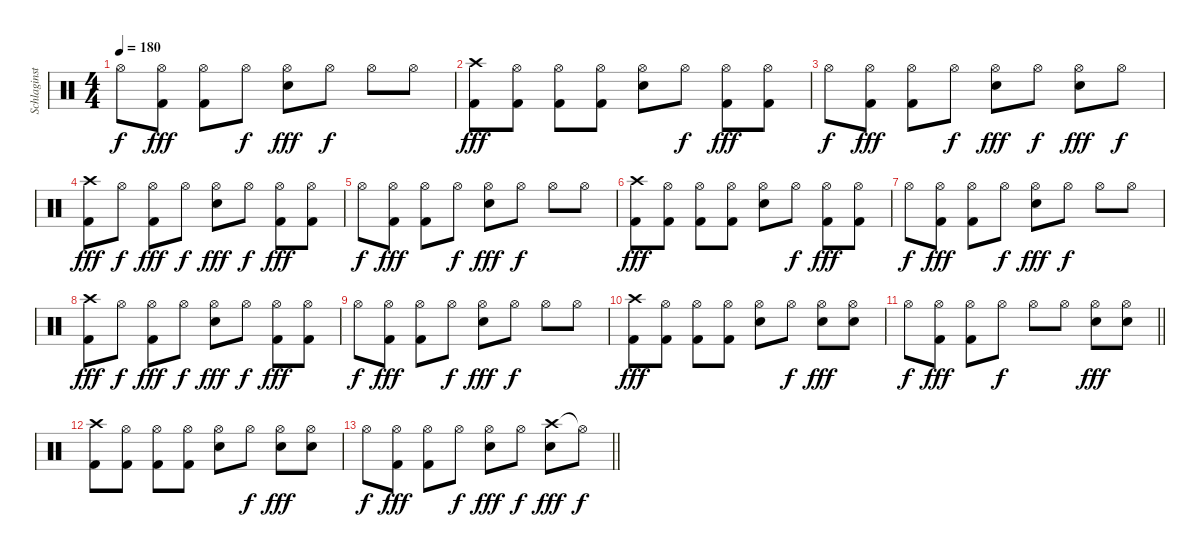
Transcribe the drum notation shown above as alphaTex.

\track ("Schlaginstrumente - Auswahl" "Schlaginst") {instrument percussion}
\staff {score}
\articulation defaults
\ts (4 4)
\tempo 180
\clef neutral
\ks c "Hi-Hat (open)".8{dy f}
("Hi-Hat (open)" "Kick (hit) 2").8{dy fff} ("Hi-Hat (open)" "Kick (hit) 2").8 "Hi-Hat (open)".8{dy f} ("Hi-Hat (open)" "Snare (hit) 2").8{dy fff} "Hi-Hat (open)".8{dy f} "Hi-Hat (open)".8 "Hi-Hat (open)".8 |
("Crash high (hit)" "Kick (hit) 2").8{dy fff} ("Hi-Hat (open)" "Kick (hit) 2").8 ("Hi-Hat (open)" "Kick (hit) 2").8 ("Hi-Hat (open)" "Kick (hit) 2").8 ("Hi-Hat (open)" "Snare (hit) 2").8 "Hi-Hat (open)".8{dy f} ("Hi-Hat (open)" "Kick (hit) 2").8{dy fff} ("Hi-Hat (open)" "Kick (hit) 2").8 |
"Hi-Hat (open)".8{dy f} ("Hi-Hat (open)" "Kick (hit) 2").8{dy fff} ("Hi-Hat (open)" "Kick (hit) 2").8 "Hi-Hat (open)".8{dy f} ("Hi-Hat (open)" "Snare (hit) 2").8{dy fff} "Hi-Hat (open)".8{dy f} ("Hi-Hat (open)" "Snare (hit) 2").8{dy fff} "Hi-Hat (open)".8{dy f} |
("Crash high (hit)" "Kick (hit) 2").8{dy fff} "Hi-Hat (open)".8{dy f} ("Hi-Hat (open)" "Kick (hit) 2").8{dy fff} "Hi-Hat (open)".8{dy f} ("Hi-Hat (open)" "Snare (hit) 2").8{dy fff} "Hi-Hat (open)".8{dy f} ("Hi-Hat (open)" "Kick (hit) 2").8{dy fff} ("Hi-Hat (open)" "Kick (hit) 2").8 |
"Hi-Hat (open)".8{dy f} ("Hi-Hat (open)" "Kick (hit) 2").8{dy fff} ("Hi-Hat (open)" "Kick (hit) 2").8 "Hi-Hat (open)".8{dy f} ("Hi-Hat (open)" "Snare (hit) 2").8{dy fff} "Hi-Hat (open)".8{dy f} "Hi-Hat (open)".8 "Hi-Hat (open)".8 |
("Crash high (hit)" "Kick (hit) 2").8{dy fff} ("Hi-Hat (open)" "Kick (hit) 2").8 ("Hi-Hat (open)" "Kick (hit) 2").8 ("Hi-Hat (open)" "Kick (hit) 2").8 ("Hi-Hat (open)" "Snare (hit) 2").8 "Hi-Hat (open)".8{dy f} ("Hi-Hat (open)" "Kick (hit) 2").8{dy fff} ("Hi-Hat (open)" "Kick (hit) 2").8 |
"Hi-Hat (open)".8{dy f} ("Hi-Hat (open)" "Kick (hit) 2").8{dy fff} ("Hi-Hat (open)" "Kick (hit) 2").8 "Hi-Hat (open)".8{dy f} ("Hi-Hat (open)" "Snare (hit) 2").8{dy fff} "Hi-Hat (open)".8{dy f} "Hi-Hat (open)".8 "Hi-Hat (open)".8 |
("Crash high (hit)" "Kick (hit) 2").8{dy fff} "Hi-Hat (open)".8{dy f} ("Hi-Hat (open)" "Kick (hit) 2").8{dy fff} "Hi-Hat (open)".8{dy f} ("Hi-Hat (open)" "Snare (hit) 2").8{dy fff} "Hi-Hat (open)".8{dy f} ("Hi-Hat (open)" "Kick (hit) 2").8{dy fff} ("Hi-Hat (open)" "Kick (hit) 2").8 |
"Hi-Hat (open)".8{dy f} ("Hi-Hat (open)" "Kick (hit) 2").8{dy fff} ("Hi-Hat (open)" "Kick (hit) 2").8 "Hi-Hat (open)".8{dy f} ("Hi-Hat (open)" "Snare (hit) 2").8{dy fff} "Hi-Hat (open)".8{dy f} "Hi-Hat (open)".8 "Hi-Hat (open)".8 |
("Crash high (hit)" "Kick (hit) 2").8{dy fff} ("Hi-Hat (open)" "Kick (hit) 2").8 ("Hi-Hat (open)" "Kick (hit) 2").8 ("Hi-Hat (open)" "Kick (hit) 2").8 ("Hi-Hat (open)" "Snare (hit) 2").8 "Hi-Hat (open)".8{dy f} ("Hi-Hat (open)" "Snare (hit) 2").8{dy fff} ("Hi-Hat (open)" "Snare (hit) 2").8 |
\barLineRight lightlight "Hi-Hat (open)".8{dy f}
("Hi-Hat (open)" "Kick (hit) 2").8{dy fff} ("Hi-Hat (open)" "Kick (hit) 2").8 "Hi-Hat (open)".8{dy f} "Hi-Hat (open)".8 "Hi-Hat (open)".8 ("Hi-Hat (open)" "Snare (hit) 2").8{dy fff} ("Hi-Hat (open)" "Snare (hit) 2").8 |
("Crash high (hit)" "Kick (hit) 2").8 ("Hi-Hat (open)" "Kick (hit) 2").8 ("Hi-Hat (open)" "Kick (hit) 2").8 ("Hi-Hat (open)" "Kick (hit) 2").8 ("Hi-Hat (open)" "Snare (hit) 2").8 "Hi-Hat (open)".8{dy f} ("Hi-Hat (open)" "Snare (hit) 2").8{dy fff} ("Hi-Hat (open)" "Snare (hit) 2").8 |
\barLineRight lightlight "Hi-Hat (open)".8{dy f}
("Hi-Hat (open)" "Kick (hit) 2").8{dy fff} ("Hi-Hat (open)" "Kick (hit) 2").8 "Hi-Hat (open)".8{dy f} ("Hi-Hat (open)" "Snare (hit) 2").8{dy fff} "Hi-Hat (open)".8{dy f} ("Crash high (hit)" "Snare (hit) 2").8{dy fff} "Hi-Hat (open)"{t}.8{dy f}
